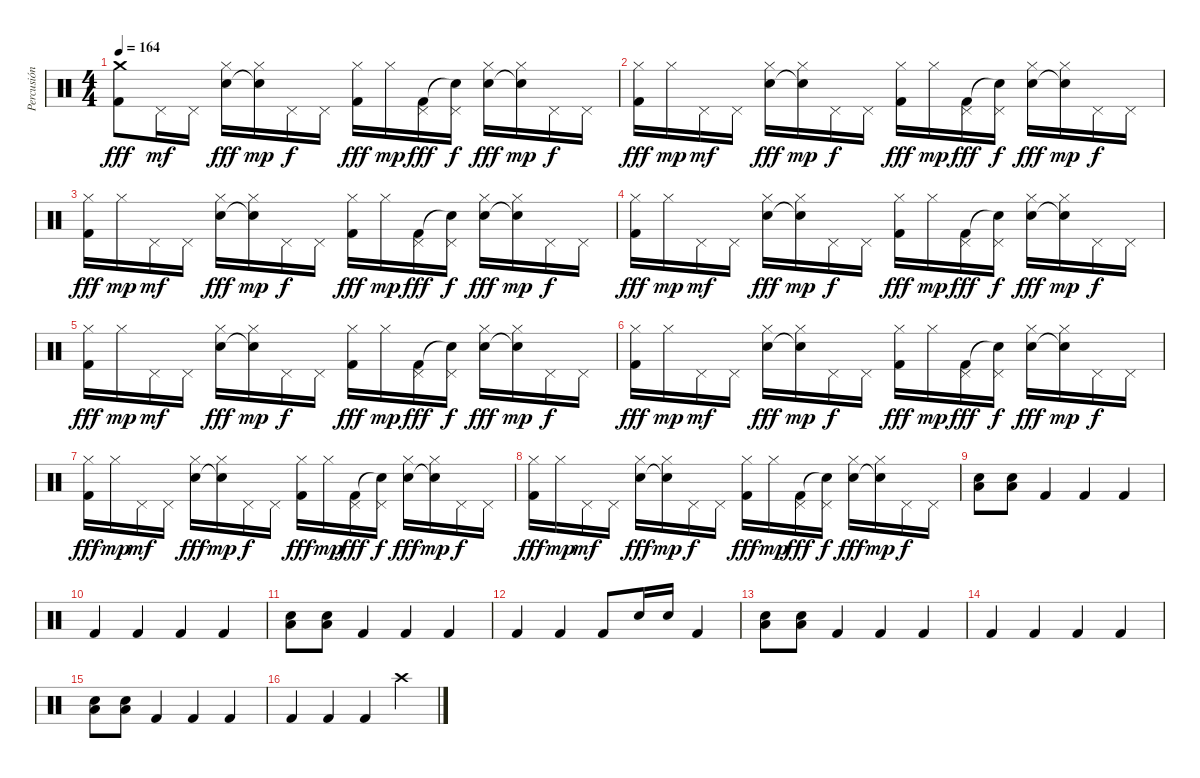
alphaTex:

\track ("Percusión" "Percusión") {instrument percussion}
\staff {score}
\articulation defaults
\ts (4 4)
\tempo 164
\clef neutral
\ks c
("Crash medium (hit)" "Kick (hit) 2").8{dy fff} "Pedal Hi-Hat (hit)".16{dy mf} "Pedal Hi-Hat (hit)".16 ("Hi-Hat (closed)" "Snare (hit) 2").16{dy fff} ("Hi-Hat (closed)" "Snare (hit)"{t}).16{dy mp} "Pedal Hi-Hat (hit)".16{dy f} "Pedal Hi-Hat (hit)".16 ("Hi-Hat (closed)" "Kick (hit) 2").16{dy fff} "Hi-Hat (closed)".16{dy mp} ("Pedal Hi-Hat (hit)" "Kick (hit) 2").16{dy fff} ("Pedal Hi-Hat (hit)" "Snare (hit)"{t}).16{dy f} ("Hi-Hat (closed)" "Snare (hit) 2").16{dy fff} ("Hi-Hat (closed)" "Snare (hit)"{t}).16{dy mp} "Pedal Hi-Hat (hit)".16{dy f} "Pedal Hi-Hat (hit)".16 |
("Hi-Hat (closed)" "Kick (hit) 2").16{dy fff} "Hi-Hat (closed)".16{dy mp} "Pedal Hi-Hat (hit)".16{dy mf} "Pedal Hi-Hat (hit)".16 ("Hi-Hat (closed)" "Snare (hit) 2").16{dy fff} ("Hi-Hat (closed)" "Snare (hit)"{t}).16{dy mp} "Pedal Hi-Hat (hit)".16{dy f} "Pedal Hi-Hat (hit)".16 ("Hi-Hat (closed)" "Kick (hit) 2").16{dy fff} "Hi-Hat (closed)".16{dy mp} ("Pedal Hi-Hat (hit)" "Kick (hit) 2").16{dy fff} ("Pedal Hi-Hat (hit)" "Snare (hit)"{t}).16{dy f} ("Hi-Hat (closed)" "Snare (hit) 2").16{dy fff} ("Hi-Hat (closed)" "Snare (hit)"{t}).16{dy mp} "Pedal Hi-Hat (hit)".16{dy f} "Pedal Hi-Hat (hit)".16 |
("Hi-Hat (closed)" "Kick (hit) 2").16{dy fff} "Hi-Hat (closed)".16{dy mp} "Pedal Hi-Hat (hit)".16{dy mf} "Pedal Hi-Hat (hit)".16 ("Hi-Hat (closed)" "Snare (hit) 2").16{dy fff} ("Hi-Hat (closed)" "Snare (hit)"{t}).16{dy mp} "Pedal Hi-Hat (hit)".16{dy f} "Pedal Hi-Hat (hit)".16 ("Hi-Hat (closed)" "Kick (hit) 2").16{dy fff} "Hi-Hat (closed)".16{dy mp} ("Pedal Hi-Hat (hit)" "Kick (hit) 2").16{dy fff} ("Pedal Hi-Hat (hit)" "Snare (hit)"{t}).16{dy f} ("Hi-Hat (closed)" "Snare (hit) 2").16{dy fff} ("Hi-Hat (closed)" "Snare (hit)"{t}).16{dy mp} "Pedal Hi-Hat (hit)".16{dy f} "Pedal Hi-Hat (hit)".16 |
("Hi-Hat (closed)" "Kick (hit) 2").16{dy fff} "Hi-Hat (closed)".16{dy mp} "Pedal Hi-Hat (hit)".16{dy mf} "Pedal Hi-Hat (hit)".16 ("Hi-Hat (closed)" "Snare (hit) 2").16{dy fff} ("Hi-Hat (closed)" "Snare (hit)"{t}).16{dy mp} "Pedal Hi-Hat (hit)".16{dy f} "Pedal Hi-Hat (hit)".16 ("Hi-Hat (closed)" "Kick (hit) 2").16{dy fff} "Hi-Hat (closed)".16{dy mp} ("Pedal Hi-Hat (hit)" "Kick (hit) 2").16{dy fff} ("Pedal Hi-Hat (hit)" "Snare (hit)"{t}).16{dy f} ("Hi-Hat (closed)" "Snare (hit) 2").16{dy fff} ("Hi-Hat (closed)" "Snare (hit)"{t}).16{dy mp} "Pedal Hi-Hat (hit)".16{dy f} "Pedal Hi-Hat (hit)".16 |
("Hi-Hat (closed)" "Kick (hit) 2").16{dy fff} "Hi-Hat (closed)".16{dy mp} "Pedal Hi-Hat (hit)".16{dy mf} "Pedal Hi-Hat (hit)".16 ("Hi-Hat (closed)" "Snare (hit) 2").16{dy fff} ("Hi-Hat (closed)" "Snare (hit)"{t}).16{dy mp} "Pedal Hi-Hat (hit)".16{dy f} "Pedal Hi-Hat (hit)".16 ("Hi-Hat (closed)" "Kick (hit) 2").16{dy fff} "Hi-Hat (closed)".16{dy mp} ("Pedal Hi-Hat (hit)" "Kick (hit) 2").16{dy fff} ("Pedal Hi-Hat (hit)" "Snare (hit)"{t}).16{dy f} ("Hi-Hat (closed)" "Snare (hit) 2").16{dy fff} ("Hi-Hat (closed)" "Snare (hit)"{t}).16{dy mp} "Pedal Hi-Hat (hit)".16{dy f} "Pedal Hi-Hat (hit)".16 |
("Hi-Hat (closed)" "Kick (hit) 2").16{dy fff} "Hi-Hat (closed)".16{dy mp} "Pedal Hi-Hat (hit)".16{dy mf} "Pedal Hi-Hat (hit)".16 ("Hi-Hat (closed)" "Snare (hit) 2").16{dy fff} ("Hi-Hat (closed)" "Snare (hit)"{t}).16{dy mp} "Pedal Hi-Hat (hit)".16{dy f} "Pedal Hi-Hat (hit)".16 ("Hi-Hat (closed)" "Kick (hit) 2").16{dy fff} "Hi-Hat (closed)".16{dy mp} ("Pedal Hi-Hat (hit)" "Kick (hit) 2").16{dy fff} ("Pedal Hi-Hat (hit)" "Snare (hit)"{t}).16{dy f} ("Hi-Hat (closed)" "Snare (hit) 2").16{dy fff} ("Hi-Hat (closed)" "Snare (hit)"{t}).16{dy mp} "Pedal Hi-Hat (hit)".16{dy f} "Pedal Hi-Hat (hit)".16 |
("Hi-Hat (closed)" "Kick (hit) 2").16{dy fff} "Hi-Hat (closed)".16{dy mp} "Pedal Hi-Hat (hit)".16{dy mf} "Pedal Hi-Hat (hit)".16 ("Hi-Hat (closed)" "Snare (hit) 2").16{dy fff} ("Hi-Hat (closed)" "Snare (hit)"{t}).16{dy mp} "Pedal Hi-Hat (hit)".16{dy f} "Pedal Hi-Hat (hit)".16 ("Hi-Hat (closed)" "Kick (hit) 2").16{dy fff} "Hi-Hat (closed)".16{dy mp} ("Pedal Hi-Hat (hit)" "Kick (hit) 2").16{dy fff} ("Pedal Hi-Hat (hit)" "Snare (hit)"{t}).16{dy f} ("Hi-Hat (closed)" "Snare (hit) 2").16{dy fff} ("Hi-Hat (closed)" "Snare (hit)"{t}).16{dy mp} "Pedal Hi-Hat (hit)".16{dy f} "Pedal Hi-Hat (hit)".16 |
("Hi-Hat (closed)" "Kick (hit) 2").16{dy fff} "Hi-Hat (closed)".16{dy mp} "Pedal Hi-Hat (hit)".16{dy mf} "Pedal Hi-Hat (hit)".16 ("Hi-Hat (closed)" "Snare (hit) 2").16{dy fff} ("Hi-Hat (closed)" "Snare (hit)"{t}).16{dy mp} "Pedal Hi-Hat (hit)".16{dy f} "Pedal Hi-Hat (hit)".16 ("Hi-Hat (closed)" "Kick (hit) 2").16{dy fff} "Hi-Hat (closed)".16{dy mp} ("Pedal Hi-Hat (hit)" "Kick (hit) 2").16{dy fff} ("Pedal Hi-Hat (hit)" "Snare (hit)"{t}).16{dy f} ("Hi-Hat (closed)" "Snare (hit) 2").16{dy fff} ("Hi-Hat (closed)" "Snare (hit)"{t}).16{dy mp} "Pedal Hi-Hat (hit)".16{dy f} "Pedal Hi-Hat (hit)".16 |
("Electric Snare (hit)" "Low Floor Tom (hit)").8 ("Electric Snare (hit)" "Low Floor Tom (hit)").8 "Kick (hit) 2".4 "Kick (hit) 2".4 "Kick (hit) 2".4 |
"Kick (hit) 2".4 "Kick (hit) 2".4 "Kick (hit) 2".4 "Kick (hit) 2".4 |
("Electric Snare (hit)" "Low Floor Tom (hit)").8 ("Electric Snare (hit)" "Low Floor Tom (hit)").8 "Kick (hit) 2".4 "Kick (hit) 2".4 "Kick (hit) 2".4 |
"Kick (hit) 2".4 "Kick (hit) 2".4 "Kick (hit) 2".8 "Electric Snare (hit)".16 "Electric Snare (hit)".16 "Kick (hit) 2".4 |
("Electric Snare (hit)" "Low Floor Tom (hit)").8 ("Electric Snare (hit)" "Low Floor Tom (hit)").8 "Kick (hit) 2".4 "Kick (hit) 2".4 "Kick (hit) 2".4 |
"Kick (hit) 2".4 "Kick (hit) 2".4 "Kick (hit) 2".4 "Kick (hit) 2".4 |
("Electric Snare (hit)" "Low Floor Tom (hit)").8 ("Electric Snare (hit)" "Low Floor Tom (hit)").8 "Kick (hit) 2".4 "Kick (hit) 2".4 "Kick (hit) 2".4 |
"Kick (hit) 2".4 "Kick (hit) 2".4 "Kick (hit) 2".4 "Crash high (hit)".4
